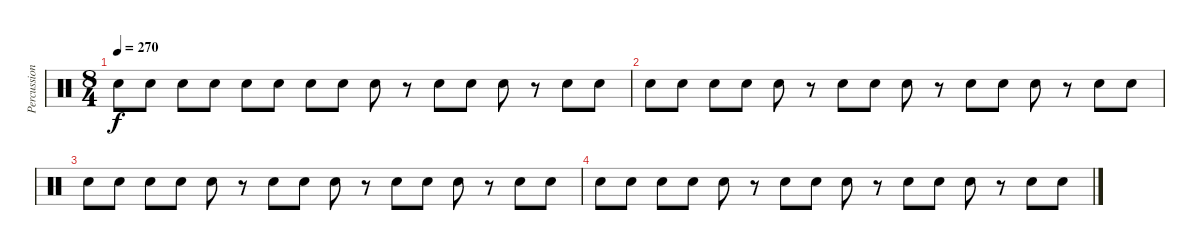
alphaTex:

\track ("Percussion" "Percussion") {instrument percussion}
\staff {score}
\articulation defaults
\ts (8 4)
\tempo 270
\clef neutral
\ks c "Snare (hit) 2".8{dy f} "Snare (hit) 2".8 "Snare (hit) 2".8 "Snare (hit) 2".8 "Snare (hit) 2".8 "Snare (hit) 2".8 "Snare (hit) 2".8 "Snare (hit) 2".8 "Snare (hit) 2".8
r.8 "Snare (hit) 2".8 "Snare (hit) 2".8 "Snare (hit) 2".8 r.8 "Snare (hit) 2".8 "Snare (hit) 2".8 |
"Snare (hit) 2".8 "Snare (hit) 2".8 "Snare (hit) 2".8 "Snare (hit) 2".8 "Snare (hit) 2".8 r.8 "Snare (hit) 2".8 "Snare (hit) 2".8 "Snare (hit) 2".8 r.8 "Snare (hit) 2".8 "Snare (hit) 2".8 "Snare (hit) 2".8 r.8 "Snare (hit) 2".8 "Snare (hit) 2".8 |
"Snare (hit) 2".8 "Snare (hit) 2".8 "Snare (hit) 2".8 "Snare (hit) 2".8 "Snare (hit) 2".8 r.8 "Snare (hit) 2".8 "Snare (hit) 2".8 "Snare (hit) 2".8 r.8 "Snare (hit) 2".8 "Snare (hit) 2".8 "Snare (hit) 2".8 r.8 "Snare (hit) 2".8 "Snare (hit) 2".8 |
"Snare (hit) 2".8 "Snare (hit) 2".8 "Snare (hit) 2".8 "Snare (hit) 2".8 "Snare (hit) 2".8 r.8 "Snare (hit) 2".8 "Snare (hit) 2".8 "Snare (hit) 2".8 r.8 "Snare (hit) 2".8 "Snare (hit) 2".8 "Snare (hit) 2".8 r.8 "Snare (hit) 2".8 "Snare (hit) 2".8
